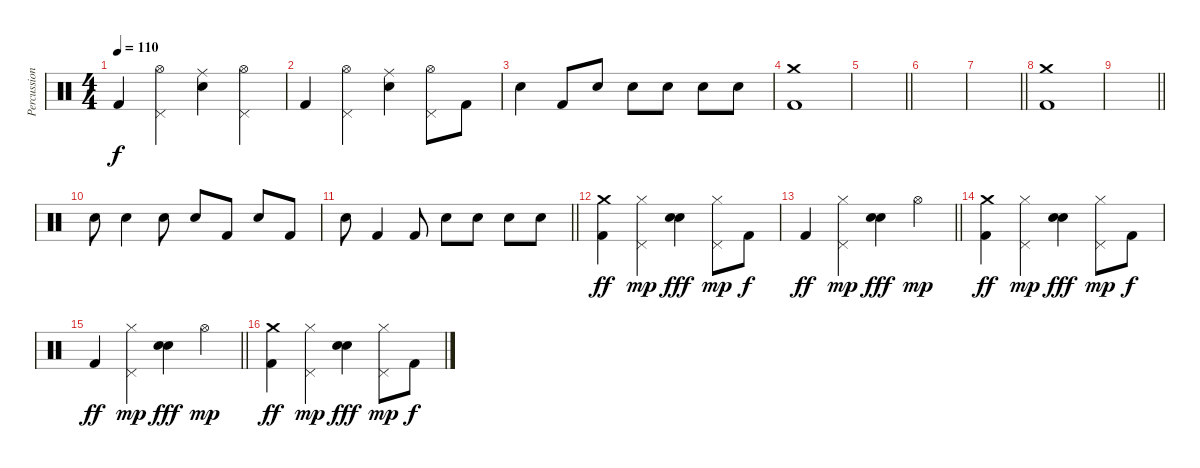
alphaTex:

\track ("Percussion" "Percussion") {instrument percussion}
\staff {score}
\articulation defaults
\ts (4 4)
\tempo 110
\clef neutral
\ks c "Kick (hit) 2".4{dy f}
("Hi-Hat (open)" "Pedal Hi-Hat (hit)").4 ("Ride (middle)" "Electric Snare (hit)").4 ("Hi-Hat (open)" "Pedal Hi-Hat (hit)").4 |
"Kick (hit) 2".4 ("Hi-Hat (open)" "Pedal Hi-Hat (hit)").4 ("Ride (middle)" "Electric Snare (hit)").4 ("Hi-Hat (open)" "Pedal Hi-Hat (hit)").8 "Kick (hit) 2".8 |
"Electric Snare (hit)".4 "Kick (hit) 2".8 "Electric Snare (hit)".8 "Electric Snare (hit)".8 "Electric Snare (hit)".8 "Electric Snare (hit)".8 "Electric Snare (hit)".8 |
("Crash medium (hit)" "Kick (hit) 2").1 |
\barLineRight lightlight
|
|
\barLineRight lightlight
|
("Crash medium (hit)" "Kick (hit) 2").1 |
\barLineRight lightlight
|
"Electric Snare (hit)".8 "Electric Snare (hit)".4 "Electric Snare (hit)".8 "Electric Snare (hit)".8 "Kick (hit) 2".8 "Electric Snare (hit)".8 "Kick (hit) 2".8 |
\barLineRight lightlight "Electric Snare (hit)".8 "Kick (hit) 2".4 "Kick (hit) 2".8 "Electric Snare (hit)".8 "Electric Snare (hit)".8 "Electric Snare (hit)".8 "Electric Snare (hit)".8
|
("Crash medium (hit)" "Kick (hit) 2").4{dy ff} ("Hi-Hat (closed)" "Pedal Hi-Hat (hit)").4{dy mp} ("Electric Snare (hit)" "Electric Snare (hit)").4{dy fff} ("Hi-Hat (closed)" "Pedal Hi-Hat (hit)").8{dy mp} "Kick (hit) 2".8{dy f} |
\barLineRight lightlight "Kick (hit) 2".4{dy ff}
("Hi-Hat (closed)" "Pedal Hi-Hat (hit)").4{dy mp} ("Electric Snare (hit)" "Electric Snare (hit)").4{dy fff} "Hi-Hat (open)".4{dy mp} |
("Crash medium (hit)" "Kick (hit) 2").4{dy ff} ("Hi-Hat (closed)" "Pedal Hi-Hat (hit)").4{dy mp} ("Electric Snare (hit)" "Electric Snare (hit)").4{dy fff} ("Hi-Hat (closed)" "Pedal Hi-Hat (hit)").8{dy mp} "Kick (hit) 2".8{dy f} |
\barLineRight lightlight "Kick (hit) 2".4{dy ff}
("Hi-Hat (closed)" "Pedal Hi-Hat (hit)").4{dy mp} ("Electric Snare (hit)" "Electric Snare (hit)").4{dy fff} "Hi-Hat (open)".4{dy mp} |
("Crash medium (hit)" "Kick (hit) 2").4{dy ff} ("Hi-Hat (closed)" "Pedal Hi-Hat (hit)").4{dy mp} ("Electric Snare (hit)" "Electric Snare (hit)").4{dy fff} ("Hi-Hat (closed)" "Pedal Hi-Hat (hit)").8{dy mp} "Kick (hit) 2".8{dy f}
